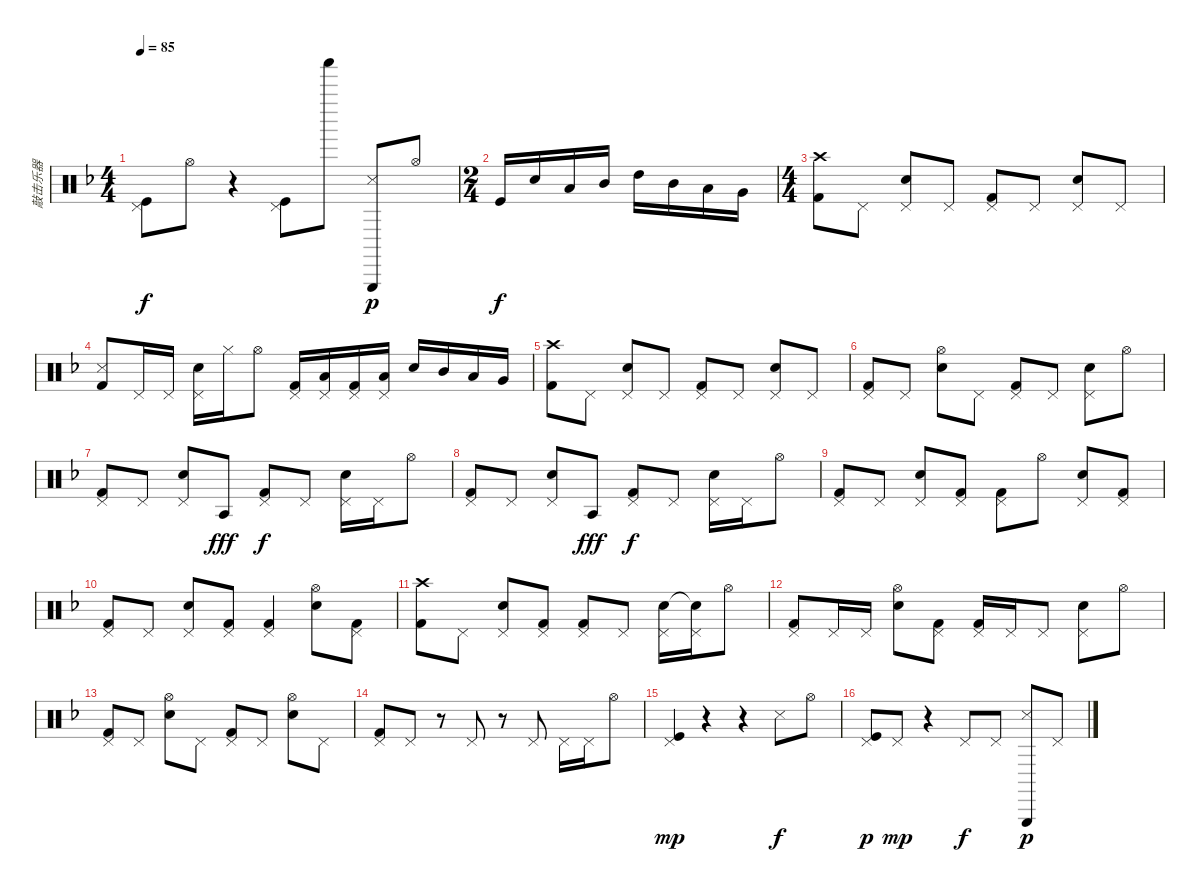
\track ("敲击乐器" "敲击乐器") {instrument percussion}
\staff {score}
\articulation defaults
\ts (4 4)
\tempo 85
\clef neutral
\ks f
("Pedal Hi-Hat (hit)" "Kick (hit)").8{dy f} "Hi-Hat (open)".8 r.4 ("Pedal Hi-Hat (hit)" "Kick (hit)").8 "Shaker (hit)".8 ("Triangle (hit)" "Snare (side stick) 3").8{dy p} "Hi-Hat (open)".8 |
\ts (2 4)
"Kick (hit)".16{dy f} "Snare (hit) 2".16 "Low Tom (hit)".16 "Mid Tom (hit)".16 "High Tom (hit)".16 "Mid Tom (hit)".16 "Low Tom (hit)".16 "Very Low Tom (hit)".16 |
\ts (4 4)
("Crash high (hit)" "Kick (hit) 2").8 "Pedal Hi-Hat (hit)".8 ("Pedal Hi-Hat (hit)" "Snare (hit) 2").8 "Pedal Hi-Hat (hit)".8 ("Pedal Hi-Hat (hit)" "Kick (hit) 2").8 "Pedal Hi-Hat (hit)".8 ("Pedal Hi-Hat (hit)" "Snare (hit) 2").8 "Pedal Hi-Hat (hit)".8 |
("Metronome (hit)" "Kick (hit) 2").8 "Pedal Hi-Hat (hit)".16 "Pedal Hi-Hat (hit)".16 ("Pedal Hi-Hat (hit)" "Snare (hit) 2").16 "Hi-Hat (closed)".16 "Hi-Hat (open)".8 ("Pedal Hi-Hat (hit)" "Kick (hit) 2").16 ("Pedal Hi-Hat (hit)" "Low Tom (hit)").16 ("Pedal Hi-Hat (hit)" "Kick (hit) 2").16 ("Pedal Hi-Hat (hit)" "Low Tom (hit)").16 "Snare (hit) 2".16 "Mid Tom (hit)".16 "Low Tom (hit)".16 "Very Low Tom (hit)".16 |
("Crash high (hit)" "Kick (hit) 2").8 "Pedal Hi-Hat (hit)".8 ("Pedal Hi-Hat (hit)" "Snare (hit) 2").8 "Pedal Hi-Hat (hit)".8 ("Pedal Hi-Hat (hit)" "Kick (hit) 2").8 "Pedal Hi-Hat (hit)".8 ("Pedal Hi-Hat (hit)" "Snare (hit) 2").8 "Pedal Hi-Hat (hit)".8 |
("Pedal Hi-Hat (hit)" "Kick (hit) 2").8 "Pedal Hi-Hat (hit)".8 ("Hi-Hat (open)" "Snare (hit) 2").8 "Pedal Hi-Hat (hit)".8 ("Pedal Hi-Hat (hit)" "Kick (hit) 2").8 "Pedal Hi-Hat (hit)".8 ("Pedal Hi-Hat (hit)" "Snare (hit) 2").8 "Hi-Hat (open)".8 |
("Pedal Hi-Hat (hit)" "Kick (hit) 2").8 "Pedal Hi-Hat (hit)".8 ("Pedal Hi-Hat (hit)" "Snare (hit) 2").8 "Agogo tow (hit)".8{dy fff} ("Pedal Hi-Hat (hit)" "Kick (hit) 2").8{dy f} "Pedal Hi-Hat (hit)".8 ("Pedal Hi-Hat (hit)" "Snare (hit) 2").16 "Pedal Hi-Hat (hit)".16 "Hi-Hat (open)".8 |
("Pedal Hi-Hat (hit)" "Kick (hit) 2").8 "Pedal Hi-Hat (hit)".8 ("Pedal Hi-Hat (hit)" "Snare (hit) 2").8 "Agogo tow (hit)".8{dy fff} ("Pedal Hi-Hat (hit)" "Kick (hit) 2").8{dy f} "Pedal Hi-Hat (hit)".8 ("Pedal Hi-Hat (hit)" "Snare (hit) 2").16 "Pedal Hi-Hat (hit)".16 "Hi-Hat (open)".8 |
("Pedal Hi-Hat (hit)" "Kick (hit) 2").8 "Pedal Hi-Hat (hit)".8 ("Pedal Hi-Hat (hit)" "Snare (hit) 2").8 ("Pedal Hi-Hat (hit)" "Kick (hit) 2").8 ("Pedal Hi-Hat (hit)" "Kick (hit) 2").8 "Hi-Hat (open)".8 ("Pedal Hi-Hat (hit)" "Snare (hit) 2").8 ("Pedal Hi-Hat (hit)" "Kick (hit) 2").8 |
("Pedal Hi-Hat (hit)" "Kick (hit) 2").8 "Pedal Hi-Hat (hit)".8 ("Pedal Hi-Hat (hit)" "Snare (hit) 2").8 ("Pedal Hi-Hat (hit)" "Kick (hit) 2").8 ("Pedal Hi-Hat (hit)" "Kick (hit) 2").4 ("Hi-Hat (open)" "Snare (hit) 2").8 ("Pedal Hi-Hat (hit)" "Kick (hit) 2").8 |
("Crash high (hit)" "Kick (hit) 2").8 "Pedal Hi-Hat (hit)".8 ("Pedal Hi-Hat (hit)" "Snare (hit) 2").8 ("Pedal Hi-Hat (hit)" "Kick (hit) 2").8 ("Pedal Hi-Hat (hit)" "Kick (hit) 2").8 "Pedal Hi-Hat (hit)".8 ("Pedal Hi-Hat (hit)" "Snare (hit) 2").16 ("Pedal Hi-Hat (hit)" "Snare (hit) 2"{t}).16 "Hi-Hat (open)".8 |
("Pedal Hi-Hat (hit)" "Kick (hit) 2").8 "Pedal Hi-Hat (hit)".16 "Pedal Hi-Hat (hit)".16 ("Hi-Hat (open)" "Snare (hit) 2").8 ("Pedal Hi-Hat (hit)" "Kick (hit) 2").8 ("Pedal Hi-Hat (hit)" "Kick (hit) 2").16 "Pedal Hi-Hat (hit)".16 "Pedal Hi-Hat (hit)".8 ("Pedal Hi-Hat (hit)" "Snare (hit) 2").8 "Hi-Hat (open)".8 |
("Pedal Hi-Hat (hit)" "Kick (hit) 2").8 "Pedal Hi-Hat (hit)".8 ("Hi-Hat (open)" "Snare (hit) 2").8 "Pedal Hi-Hat (hit)".8 ("Pedal Hi-Hat (hit)" "Kick (hit) 2").8 "Pedal Hi-Hat (hit)".8 ("Hi-Hat (open)" "Snare (hit) 2").8 "Pedal Hi-Hat (hit)".8 |
("Pedal Hi-Hat (hit)" "Kick (hit) 2").8 "Pedal Hi-Hat (hit)".8 r.8 "Pedal Hi-Hat (hit)".8 r.8 "Pedal Hi-Hat (hit)".8 "Pedal Hi-Hat (hit)".16 "Pedal Hi-Hat (hit)".16 "Hi-Hat (open)".8 |
("Pedal Hi-Hat (hit)" "Kick (hit)").4{dy mp} r.4 r.4 "Snare (side stick) 3".8{dy f} "Hi-Hat (open)".8 |
("Pedal Hi-Hat (hit)" "Kick (hit)").8{dy p} "Pedal Hi-Hat (hit)".8{dy mp} r.4 "Pedal Hi-Hat (hit)".8{dy f} "Pedal Hi-Hat (hit)".8 ("Triangle (hit)" "Snare (side stick) 3").8{dy p} "Pedal Hi-Hat (hit)".8
